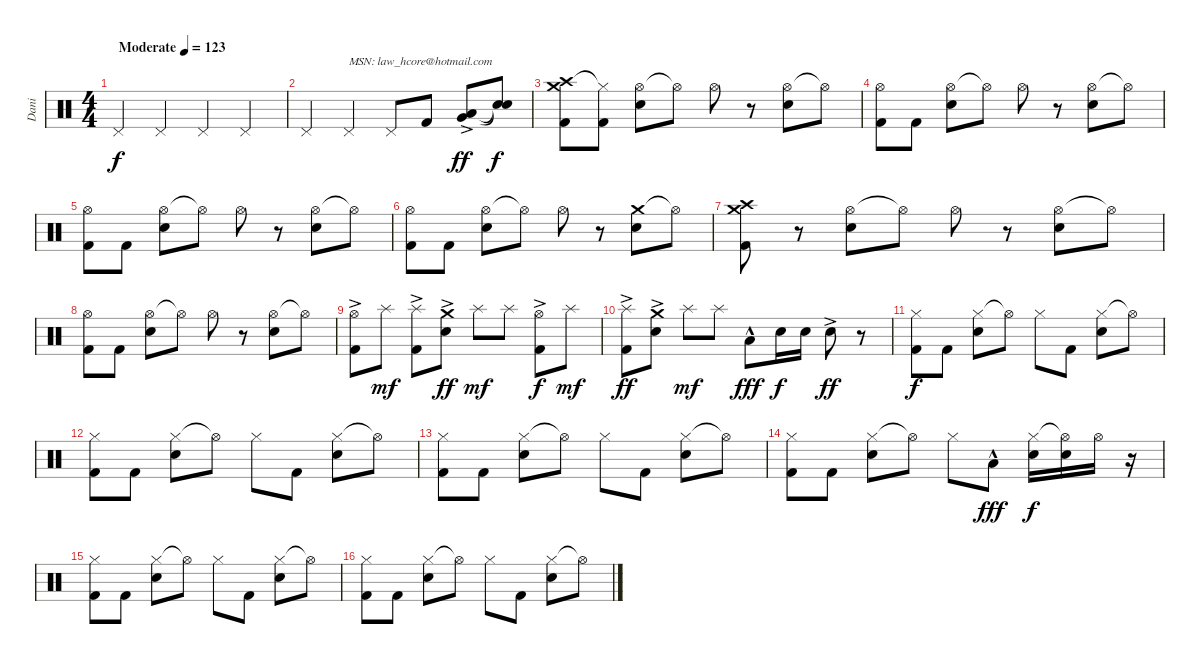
\track ("Dani" "Dani") {instrument percussion}
\staff {score}
\articulation defaults
\ts (4 4)
\tempo (123 "Moderate")
\clef neutral
\ks c "Pedal Hi-Hat (hit)".4{dy f} "Pedal Hi-Hat (hit)".4 "Pedal Hi-Hat (hit)".4 "Pedal Hi-Hat (hit)".4
|
"Pedal Hi-Hat (hit)".4 "Pedal Hi-Hat (hit)".4{txt "MSN: law_hcore@hotmail.com"} "Pedal Hi-Hat (hit)".8 "Kick (hit) 2".8 ("Very Low Tom (hit)"{ac} "Low Floor Tom (hit)"{ac}).8{dy ff} ("Snare (hit)"{t} "Snare (hit)"{t}).8{dy f} |
("Crash high (hit)" "Crash medium (hit)" "Kick (hit) 2").8 ("Hi-Hat (closed)"{t} "Kick (hit) 2").8 ("Hi-Hat (open)" "Snare (hit) 2").8 "Hi-Hat (open)"{t}.8 "Hi-Hat (open)".8 r.8 ("Hi-Hat (open)" "Snare (hit) 2").8 "Hi-Hat (open)"{t}.8 |
("Hi-Hat (open)" "Kick (hit) 2").8 "Kick (hit) 2".8 ("Hi-Hat (open)" "Snare (hit) 2").8 "Hi-Hat (open)"{t}.8 "Hi-Hat (open)".8 r.8 ("Hi-Hat (open)" "Snare (hit) 2").8 "Hi-Hat (open)"{t}.8 |
("Hi-Hat (open)" "Kick (hit) 2").8 "Kick (hit) 2".8 ("Hi-Hat (open)" "Snare (hit) 2").8 "Hi-Hat (open)"{t}.8 "Hi-Hat (open)".8 r.8 ("Hi-Hat (open)" "Snare (hit) 2").8 "Hi-Hat (open)"{t}.8 |
("Hi-Hat (open)" "Kick (hit) 2").8 "Kick (hit) 2".8 ("Hi-Hat (open)" "Snare (hit) 2").8 "Hi-Hat (open)"{t}.8 "Hi-Hat (open)".8 r.8 ("Crash medium (hit)" "Snare (hit) 2").8 "Hi-Hat (open)"{t}.8 |
("Crash high (hit)" "Crash medium (hit)" "Kick (hit) 2").8 r.8 ("Hi-Hat (open)" "Snare (hit) 2").8 "Hi-Hat (open)"{t}.8 "Hi-Hat (open)".8 r.8 ("Hi-Hat (open)" "Snare (hit) 2").8 "Hi-Hat (open)"{t}.8 |
("Hi-Hat (open)" "Kick (hit) 2").8 "Kick (hit) 2".8 ("Hi-Hat (open)" "Snare (hit) 2").8 "Hi-Hat (open)"{t}.8 "Hi-Hat (open)".8 r.8 ("Hi-Hat (open)" "Snare (hit) 2").8 "Hi-Hat (open)"{t}.8 |
("Hi-Hat (open)"{ac} "Kick (hit) 2"{ac}).8 "Splash (hit)".8{dy mf} ("Splash (hit)" "Kick (hit) 2"{ac}).8 ("Crash medium (hit)"{ac} "Snare (hit) 2"{ac}).8{dy ff} "Splash (hit)".8{dy mf} "Splash (hit)".8 ("Hi-Hat (open)"{ac} "Kick (hit) 2"{ac}).8{dy f} "Splash (hit)".8{dy mf} |
("Splash (hit)" "Kick (hit) 2"{ac}).8{dy ff} ("Crash medium (hit)"{ac} "Snare (hit) 2"{ac}).8 "Splash (hit)".8{dy mf} "Splash (hit)".8 "Low Tom (hit)"{hac}.8{dy fff} "Snare (hit) 2".16{dy f} "Snare (hit) 2".16 "Snare (hit) 2"{ac}.8{dy ff} r.8 |
("Hi-Hat (closed)" "Kick (hit) 2").8{dy f} "Kick (hit) 2".8 ("Hi-Hat (closed)" "Snare (hit) 2").8 "Hi-Hat (open)"{t}.8 "Hi-Hat (closed)".8 "Kick (hit) 2".8 ("Hi-Hat (closed)" "Snare (hit) 2").8 "Hi-Hat (open)"{t}.8 |
("Hi-Hat (closed)" "Kick (hit) 2").8 "Kick (hit) 2".8 ("Hi-Hat (closed)" "Snare (hit) 2").8 "Hi-Hat (open)"{t}.8 "Hi-Hat (closed)".8 "Kick (hit) 2".8 ("Hi-Hat (closed)" "Snare (hit) 2").8 "Hi-Hat (open)"{t}.8 |
("Hi-Hat (closed)" "Kick (hit) 2").8 "Kick (hit) 2".8 ("Hi-Hat (closed)" "Snare (hit) 2").8 "Hi-Hat (open)"{t}.8 "Hi-Hat (closed)".8 "Kick (hit) 2".8 ("Hi-Hat (closed)" "Snare (hit) 2").8 "Hi-Hat (open)"{t}.8 |
("Hi-Hat (closed)" "Kick (hit) 2").8 "Kick (hit) 2".8 ("Hi-Hat (closed)" "Snare (hit) 2").8 "Hi-Hat (open)"{t}.8 "Hi-Hat (closed)".8 "Low Tom (hit)"{hac}.8{dy fff} ("Hi-Hat (closed)" "Snare (hit) 2").16{dy f} ("Hi-Hat (open)"{t} "Snare (hit) 2").16 "Hi-Hat (open)".16 r.16 |
("Hi-Hat (closed)" "Kick (hit) 2").8 "Kick (hit) 2".8 ("Hi-Hat (closed)" "Snare (hit) 2").8 "Hi-Hat (open)"{t}.8 "Hi-Hat (closed)".8 "Kick (hit) 2".8 ("Hi-Hat (closed)" "Snare (hit) 2").8 "Hi-Hat (open)"{t}.8 |
("Hi-Hat (closed)" "Kick (hit) 2").8 "Kick (hit) 2".8 ("Hi-Hat (closed)" "Snare (hit) 2").8 "Hi-Hat (open)"{t}.8 "Hi-Hat (closed)".8 "Kick (hit) 2".8 ("Hi-Hat (closed)" "Snare (hit) 2").8 "Hi-Hat (open)"{t}.8
